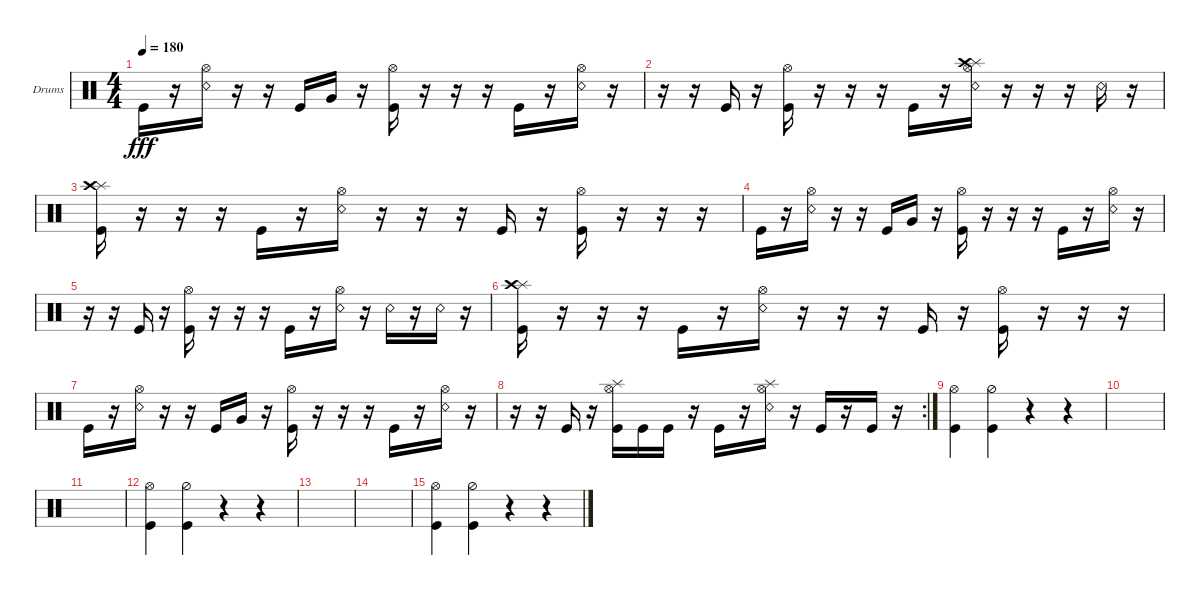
\defaultSystemsLayout 4
\bracketExtendMode groupsimilarinstruments
\firstSystemTrackNameOrientation horizontal
\otherSystemsTrackNameOrientation horizontal
\track ("Drumkit" "Drums") {instrument percussion}
\staff {score}
\articulation defaults
\ts (4 4)
\tempo 180
\clef neutral
\ks c "Kick (hit)".16{dy fff}
r.16 ("Hi-Hat (open)" "Snare (rim shot)").16 r.16 r.16 "Kick (hit)".16 "Very Low Tom (hit)".16 r.16 ("Hi-Hat (open)" "Kick (hit)").16 r.16 r.16 r.16 "Kick (hit)".16 r.16 ("Hi-Hat (open)" "Snare (rim shot)").16 r.16 |
r.16 r.16 "Kick (hit)".16 r.16 ("Hi-Hat (open)" "Kick (hit)").16 r.16 r.16 r.16 "Kick (hit)".16 r.16 ("Hi-Hat (open)" "Snare (rim shot)" "Splash (hit)" "Crash high (hit)").16 r.16 r.16 r.16 "Snare (rim shot)".16 r.16 |
("Splash (hit)" "Crash high (hit)" "Kick (hit)").16 r.16 r.16 r.16 "Kick (hit)".16 r.16 ("Hi-Hat (open)" "Snare (rim shot)").16 r.16 r.16 r.16 "Kick (hit)".16 r.16 ("Hi-Hat (open)" "Kick (hit)").16 r.16 r.16 r.16 |
"Kick (hit)".16 r.16 ("Hi-Hat (open)" "Snare (rim shot)").16 r.16 r.16 "Kick (hit)".16 "Very Low Tom (hit)".16 r.16 ("Hi-Hat (open)" "Kick (hit)").16 r.16 r.16 r.16 "Kick (hit)".16 r.16 ("Hi-Hat (open)" "Snare (rim shot)").16 r.16 |
r.16 r.16 "Kick (hit)".16 r.16 ("Hi-Hat (open)" "Kick (hit)").16 r.16 r.16 r.16 "Kick (hit)".16 r.16 ("Hi-Hat (open)" "Snare (rim shot)").16 r.16 "Snare (rim shot)".16 r.16 "Snare (rim shot)".16 r.16 |
("Splash (hit)" "Crash high (hit)" "Kick (hit)").16 r.16 r.16 r.16 "Kick (hit)".16 r.16 ("Hi-Hat (open)" "Snare (rim shot)").16 r.16 r.16 r.16 "Kick (hit)".16 r.16 ("Hi-Hat (open)" "Kick (hit)").16 r.16 r.16 r.16 |
"Kick (hit)".16 r.16 ("Hi-Hat (open)" "Snare (rim shot)").16 r.16 r.16 "Kick (hit)".16 "Very Low Tom (hit)".16 r.16 ("Hi-Hat (open)" "Kick (hit)").16 r.16 r.16 r.16 "Kick (hit)".16 r.16 ("Hi-Hat (open)" "Snare (rim shot)").16 r.16 |
\rc 2
r.16 r.16 "Kick (hit)".16 r.16 ("Hi-Hat (open)" "Kick (hit)" "Splash (hit)").16 "Kick (hit)".16 "Kick (hit)".16 r.16 "Kick (hit)".16 r.16 ("Hi-Hat (open)" "Snare (rim shot)" "Splash (hit)").16 r.16 "Kick (hit)".16 r.16 "Kick (hit)".16 r.16 |
("Kick (hit)" "Hi-Hat (open)").4 ("Kick (hit)" "Hi-Hat (half)").4 r.4 r.4 |
|
|
("Kick (hit)" "Hi-Hat (open)").4 ("Kick (hit)" "Hi-Hat (half)").4 r.4 r.4 |
|
|
("Kick (hit)" "Hi-Hat (open)").4 ("Kick (hit)" "Hi-Hat (half)").4 r.4 r.4
